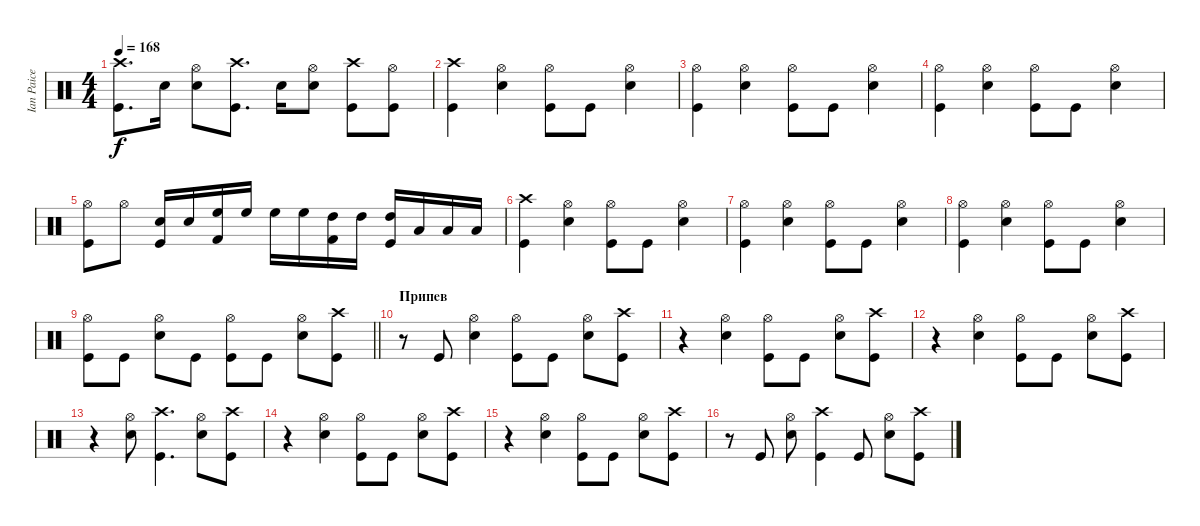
\track ("Ian Paice" "Ian Paice") {instrument percussion}
\staff {score}
\articulation defaults
\ts (4 4)
\tempo 168
\clef neutral
\ks c
("Crash high (hit)" "Kick (hit)").8{d dy f} "Snare (hit) 2".16 ("Hi-Hat (open)" "Snare (hit) 2").8 ("Crash high (hit)" "Kick (hit)").8{d} "Snare (hit) 2".16 ("Hi-Hat (open)" "Snare (hit) 2").8 ("Crash high (hit)" "Kick (hit)").8 ("Hi-Hat (open)" "Kick (hit)").8 |
("Crash high (hit)" "Kick (hit)").4 ("Snare (hit) 2" "Hi-Hat (open)").4 ("Hi-Hat (open)" "Kick (hit)").8 "Kick (hit)".8 ("Hi-Hat (open)" "Snare (hit) 2").4 |
("Kick (hit)" "Hi-Hat (open)").4 ("Hi-Hat (open)" "Snare (hit) 2").4 ("Hi-Hat (open)" "Kick (hit)").8 "Kick (hit)".8 ("Hi-Hat (open)" "Snare (hit) 2").4 |
("Hi-Hat (open)" "Kick (hit)").4 ("Hi-Hat (open)" "Snare (hit) 2").4 ("Kick (hit)" "Hi-Hat (open)").8 "Kick (hit)".8 ("Snare (hit) 2" "Hi-Hat (open)").4 |
("Hi-Hat (open)" "Kick (hit)").8 "Hi-Hat (open)".8 ("Electric Snare (hit)" "Kick (hit)").16 "Electric Snare (hit)".16 ("High Floor Tom (hit)" "Kick (hit) 2").16 "High Floor Tom (hit)".16 "High Floor Tom (hit)".16 "High Floor Tom (hit)".16 ("High Tom (hit)" "Kick (hit) 2").16 "High Tom (hit)".16 ("Kick (hit)" "High Tom (hit)").16 "Low Tom (hit)".16 "Low Tom (hit)".16 "Low Floor Tom (hit)".16 |
("Crash high (hit)" "Kick (hit)").4 ("Snare (hit) 2" "Hi-Hat (open)").4 ("Hi-Hat (open)" "Kick (hit)").8 "Kick (hit)".8 ("Snare (hit) 2" "Hi-Hat (open)").4 |
("Kick (hit)" "Hi-Hat (open)").4 ("Snare (hit) 2" "Hi-Hat (open)").4 ("Hi-Hat (open)" "Kick (hit)").8 "Kick (hit)".8 ("Hi-Hat (open)" "Snare (hit) 2").4 |
("Kick (hit)" "Hi-Hat (open)").4 ("Snare (hit) 2" "Hi-Hat (open)").4 ("Hi-Hat (open)" "Kick (hit)").8 "Kick (hit)".8 ("Hi-Hat (open)" "Snare (hit) 2").4 |
\barLineRight lightlight
("Kick (hit)" "Hi-Hat (open)").8 "Kick (hit)".8 ("Snare (hit) 2" "Hi-Hat (open)").8 "Kick (hit)".8 ("Hi-Hat (open)" "Kick (hit)").8 "Kick (hit)".8 ("Snare (hit) 2" "Hi-Hat (open)").8 ("Crash high (hit)" "Kick (hit)").8 |
\section ("" "Припев")
r.8 "Kick (hit)".8 ("Hi-Hat (open)" "Snare (hit) 2").4 ("Hi-Hat (open)" "Kick (hit)").8 "Kick (hit)".8 ("Hi-Hat (open)" "Snare (hit) 2").8 ("Kick (hit)" "Crash high (hit)").8 |
r.4 ("Hi-Hat (open)" "Snare (hit) 2").4 ("Hi-Hat (open)" "Kick (hit)").8 "Kick (hit)".8 ("Hi-Hat (open)" "Snare (hit) 2").8 ("Kick (hit)" "Crash high (hit)").8 |
r.4 ("Hi-Hat (open)" "Snare (hit) 2").4 ("Hi-Hat (open)" "Kick (hit)").8 "Kick (hit)".8 ("Hi-Hat (open)" "Snare (hit) 2").8 ("Kick (hit)" "Crash high (hit)").8 |
r.4 ("Hi-Hat (open)" "Snare (hit) 2").8 ("Kick (hit)" "Crash high (hit)").4{d} ("Hi-Hat (open)" "Snare (hit) 2").8 ("Kick (hit)" "Crash high (hit)").8 |
r.4 ("Snare (hit) 2" "Hi-Hat (open)").4 ("Kick (hit)" "Hi-Hat (open)").8 "Kick (hit)".8 ("Hi-Hat (open)" "Snare (hit) 2").8 ("Crash high (hit)" "Kick (hit)").8 |
r.4 ("Snare (hit) 2" "Hi-Hat (open)").4 ("Kick (hit)" "Hi-Hat (open)").8 "Kick (hit)".8 ("Snare (hit) 2" "Hi-Hat (open)").8 ("Crash high (hit)" "Kick (hit)").8 |
r.8 "Kick (hit)".8 ("Hi-Hat (open)" "Snare (hit) 2").8 ("Kick (hit)" "Crash high (hit)").4 "Kick (hit)".8 ("Hi-Hat (open)" "Snare (hit) 2").8 ("Crash high (hit)" "Kick (hit)").8
